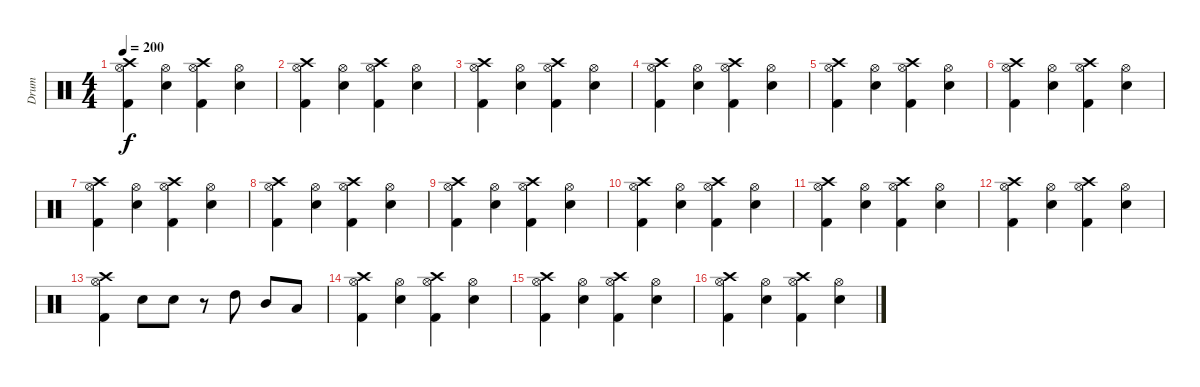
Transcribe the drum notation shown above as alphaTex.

\track ("Drum" "Drum") {instrument percussion}
\staff {score}
\articulation defaults
\ts (4 4)
\tempo 200
\clef neutral
\ks c
("Crash high (hit)" "Hi-Hat (open)" "Kick (hit) 2").4{dy f} ("Hi-Hat (open)" "Snare (hit) 2").4 ("Crash high (hit)" "Hi-Hat (open)" "Kick (hit) 2").4 ("Hi-Hat (open)" "Snare (hit) 2").4 |
("Crash high (hit)" "Hi-Hat (open)" "Kick (hit) 2").4 ("Hi-Hat (open)" "Snare (hit) 2").4 ("Crash high (hit)" "Hi-Hat (open)" "Kick (hit) 2").4 ("Hi-Hat (open)" "Snare (hit) 2").4 |
("Crash high (hit)" "Hi-Hat (open)" "Kick (hit) 2").4 ("Hi-Hat (open)" "Snare (hit) 2").4 ("Crash high (hit)" "Hi-Hat (open)" "Kick (hit) 2").4 ("Hi-Hat (open)" "Snare (hit) 2").4 |
("Crash high (hit)" "Hi-Hat (open)" "Kick (hit) 2").4 ("Hi-Hat (open)" "Snare (hit) 2").4 ("Crash high (hit)" "Hi-Hat (open)" "Kick (hit) 2").4 ("Hi-Hat (open)" "Snare (hit) 2").4 |
("Crash high (hit)" "Hi-Hat (open)" "Kick (hit) 2").4 ("Hi-Hat (open)" "Snare (hit) 2").4 ("Crash high (hit)" "Hi-Hat (open)" "Kick (hit) 2").4 ("Hi-Hat (open)" "Snare (hit) 2").4 |
("Crash high (hit)" "Hi-Hat (open)" "Kick (hit) 2").4 ("Hi-Hat (open)" "Snare (hit) 2").4 ("Crash high (hit)" "Hi-Hat (open)" "Kick (hit) 2").4 ("Hi-Hat (open)" "Snare (hit) 2").4 |
("Crash high (hit)" "Hi-Hat (open)" "Kick (hit) 2").4 ("Hi-Hat (open)" "Snare (hit) 2").4 ("Crash high (hit)" "Hi-Hat (open)" "Kick (hit) 2").4 ("Hi-Hat (open)" "Snare (hit) 2").4 |
("Crash high (hit)" "Hi-Hat (open)" "Kick (hit) 2").4 ("Hi-Hat (open)" "Snare (hit) 2").4 ("Crash high (hit)" "Hi-Hat (open)" "Kick (hit) 2").4 ("Hi-Hat (open)" "Snare (hit) 2").4 |
("Crash high (hit)" "Hi-Hat (open)" "Kick (hit) 2").4 ("Hi-Hat (open)" "Snare (hit) 2").4 ("Crash high (hit)" "Hi-Hat (open)" "Kick (hit) 2").4 ("Hi-Hat (open)" "Snare (hit) 2").4 |
("Crash high (hit)" "Hi-Hat (open)" "Kick (hit) 2").4 ("Hi-Hat (open)" "Snare (hit) 2").4 ("Crash high (hit)" "Hi-Hat (open)" "Kick (hit) 2").4 ("Hi-Hat (open)" "Snare (hit) 2").4 |
("Crash high (hit)" "Hi-Hat (open)" "Kick (hit) 2").4 ("Hi-Hat (open)" "Snare (hit) 2").4 ("Crash high (hit)" "Hi-Hat (open)" "Kick (hit) 2").4 ("Hi-Hat (open)" "Snare (hit) 2").4 |
("Crash high (hit)" "Hi-Hat (open)" "Kick (hit) 2").4 ("Hi-Hat (open)" "Snare (hit) 2").4 ("Crash high (hit)" "Hi-Hat (open)" "Kick (hit) 2").4 ("Hi-Hat (open)" "Snare (hit) 2").4 |
("Crash high (hit)" "Hi-Hat (open)" "Kick (hit) 2").4 "Snare (hit) 2".8 "Snare (hit) 2".8 r.8 "High Tom (hit)".8 "Mid Tom (hit)".8 "Low Tom (hit)".8 |
("Crash high (hit)" "Hi-Hat (open)" "Kick (hit) 2").4 ("Hi-Hat (open)" "Snare (hit) 2").4 ("Crash high (hit)" "Hi-Hat (open)" "Kick (hit) 2").4 ("Hi-Hat (open)" "Snare (hit) 2").4 |
("Crash high (hit)" "Hi-Hat (open)" "Kick (hit) 2").4 ("Hi-Hat (open)" "Snare (hit) 2").4 ("Crash high (hit)" "Hi-Hat (open)" "Kick (hit) 2").4 ("Hi-Hat (open)" "Snare (hit) 2").4 |
("Crash high (hit)" "Hi-Hat (open)" "Kick (hit) 2").4 ("Hi-Hat (open)" "Snare (hit) 2").4 ("Crash high (hit)" "Hi-Hat (open)" "Kick (hit) 2").4 ("Hi-Hat (open)" "Snare (hit) 2").4
